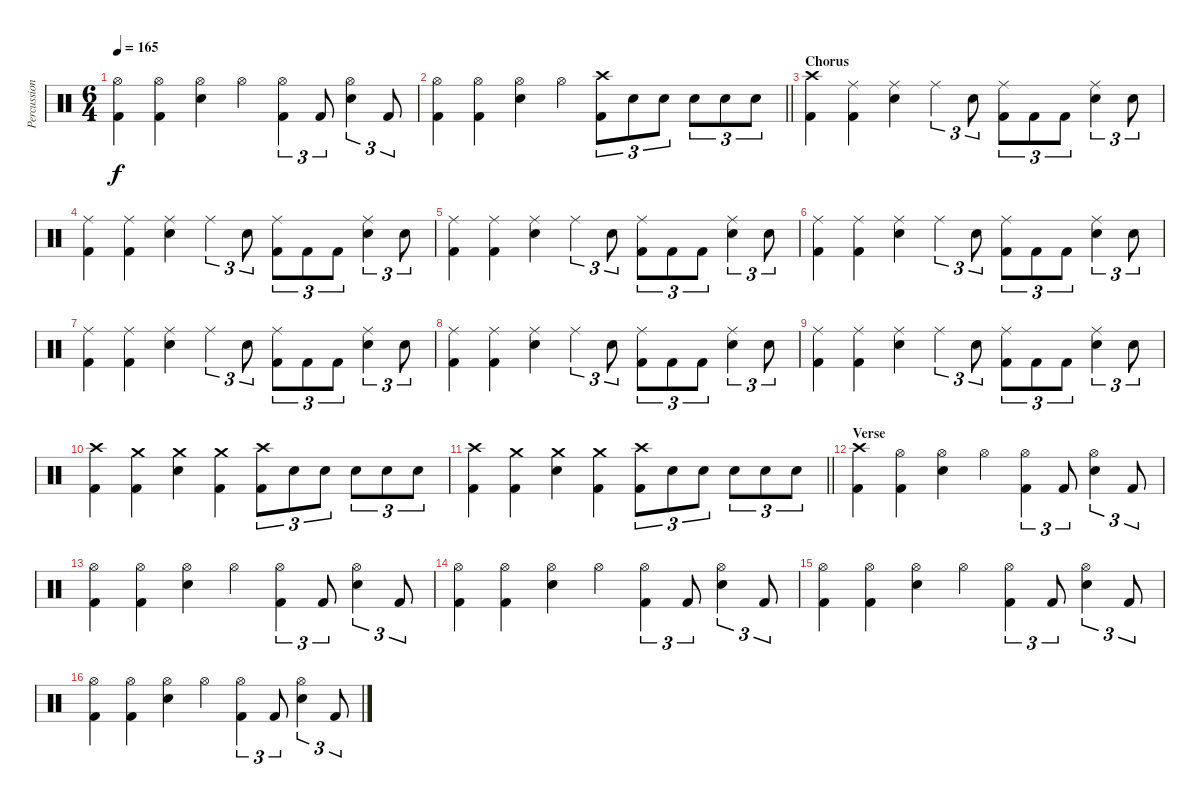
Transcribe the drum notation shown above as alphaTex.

\track ("Percussion" "Percussion") {instrument percussion}
\staff {score}
\articulation defaults
\ts (6 4)
\tempo 165
\clef neutral
\ks c
("Hi-Hat (open)" "Kick (hit) 2").4{dy f} ("Hi-Hat (open)" "Kick (hit) 2").4 ("Hi-Hat (open)" "Electric Snare (hit)").4 "Hi-Hat (open)".4 ("Hi-Hat (open)" "Kick (hit) 2").4{tu (3 2)} "Kick (hit) 2".8{tu (3 2)} ("Hi-Hat (open)" "Electric Snare (hit)").4{tu (3 2)} "Kick (hit) 2".8{tu (3 2)} |
\barLineRight lightlight
("Hi-Hat (open)" "Kick (hit) 2").4 ("Hi-Hat (open)" "Kick (hit) 2").4 ("Hi-Hat (open)" "Electric Snare (hit)").4 "Hi-Hat (open)".4 ("Crash high (hit)" "Kick (hit) 2").8{tu (3 2)} "Electric Snare (hit)".8{tu (3 2)} "Electric Snare (hit)".8{tu (3 2)} "Electric Snare (hit)".8{tu (3 2)} "Electric Snare (hit)".8{tu (3 2)} "Electric Snare (hit)".8{tu (3 2)} |
\section ("" "Chorus")
("Crash high (hit)" "Kick (hit) 2").4 ("Ride (middle)" "Kick (hit) 2").4 ("Ride (middle)" "Electric Snare (hit)").4 "Ride (middle)".4{tu (3 2)} "Electric Snare (hit)".8{tu (3 2)} ("Ride (middle)" "Kick (hit) 2").8{tu (3 2)} "Kick (hit) 2".8{tu (3 2)} "Kick (hit) 2".8{tu (3 2)} ("Ride (middle)" "Electric Snare (hit)").4{tu (3 2)} "Electric Snare (hit)".8{tu (3 2)} |
("Ride (middle)" "Kick (hit) 2").4 ("Ride (middle)" "Kick (hit) 2").4 ("Ride (middle)" "Electric Snare (hit)").4 "Ride (middle)".4{tu (3 2)} "Electric Snare (hit)".8{tu (3 2)} ("Ride (middle)" "Kick (hit) 2").8{tu (3 2)} "Kick (hit) 2".8{tu (3 2)} "Kick (hit) 2".8{tu (3 2)} ("Ride (middle)" "Electric Snare (hit)").4{tu (3 2)} "Electric Snare (hit)".8{tu (3 2)} |
("Ride (middle)" "Kick (hit) 2").4 ("Ride (middle)" "Kick (hit) 2").4 ("Ride (middle)" "Electric Snare (hit)").4 "Ride (middle)".4{tu (3 2)} "Electric Snare (hit)".8{tu (3 2)} ("Ride (middle)" "Kick (hit) 2").8{tu (3 2)} "Kick (hit) 2".8{tu (3 2)} "Kick (hit) 2".8{tu (3 2)} ("Ride (middle)" "Electric Snare (hit)").4{tu (3 2)} "Electric Snare (hit)".8{tu (3 2)} |
("Ride (middle)" "Kick (hit) 2").4 ("Ride (middle)" "Kick (hit) 2").4 ("Ride (middle)" "Electric Snare (hit)").4 "Ride (middle)".4{tu (3 2)} "Electric Snare (hit)".8{tu (3 2)} ("Ride (middle)" "Kick (hit) 2").8{tu (3 2)} "Kick (hit) 2".8{tu (3 2)} "Kick (hit) 2".8{tu (3 2)} ("Ride (middle)" "Electric Snare (hit)").4{tu (3 2)} "Electric Snare (hit)".8{tu (3 2)} |
("Ride (middle)" "Kick (hit) 2").4 ("Ride (middle)" "Kick (hit) 2").4 ("Ride (middle)" "Electric Snare (hit)").4 "Ride (middle)".4{tu (3 2)} "Electric Snare (hit)".8{tu (3 2)} ("Ride (middle)" "Kick (hit) 2").8{tu (3 2)} "Kick (hit) 2".8{tu (3 2)} "Kick (hit) 2".8{tu (3 2)} ("Ride (middle)" "Electric Snare (hit)").4{tu (3 2)} "Electric Snare (hit)".8{tu (3 2)} |
("Ride (middle)" "Kick (hit) 2").4 ("Ride (middle)" "Kick (hit) 2").4 ("Ride (middle)" "Electric Snare (hit)").4 "Ride (middle)".4{tu (3 2)} "Electric Snare (hit)".8{tu (3 2)} ("Ride (middle)" "Kick (hit) 2").8{tu (3 2)} "Kick (hit) 2".8{tu (3 2)} "Kick (hit) 2".8{tu (3 2)} ("Ride (middle)" "Electric Snare (hit)").4{tu (3 2)} "Electric Snare (hit)".8{tu (3 2)} |
("Ride (middle)" "Kick (hit) 2").4 ("Ride (middle)" "Kick (hit) 2").4 ("Ride (middle)" "Electric Snare (hit)").4 "Ride (middle)".4{tu (3 2)} "Electric Snare (hit)".8{tu (3 2)} ("Ride (middle)" "Kick (hit) 2").8{tu (3 2)} "Kick (hit) 2".8{tu (3 2)} "Kick (hit) 2".8{tu (3 2)} ("Ride (middle)" "Electric Snare (hit)").4{tu (3 2)} "Electric Snare (hit)".8{tu (3 2)} |
("Crash high (hit)" "Kick (hit) 2").4 ("Crash medium (hit)" "Kick (hit) 2").4 ("Crash medium (hit)" "Electric Snare (hit)").4 ("Crash medium (hit)" "Kick (hit) 2").4 ("Crash high (hit)" "Kick (hit) 2").8{tu (3 2)} "Electric Snare (hit)".8{tu (3 2)} "Electric Snare (hit)".8{tu (3 2)} "Electric Snare (hit)".8{tu (3 2)} "Electric Snare (hit)".8{tu (3 2)} "Electric Snare (hit)".8{tu (3 2)} |
\barLineRight lightlight
("Crash high (hit)" "Kick (hit) 2").4 ("Crash medium (hit)" "Kick (hit) 2").4 ("Crash medium (hit)" "Electric Snare (hit)").4 ("Crash medium (hit)" "Kick (hit) 2").4 ("Crash high (hit)" "Kick (hit) 2").8{tu (3 2)} "Electric Snare (hit)".8{tu (3 2)} "Electric Snare (hit)".8{tu (3 2)} "Electric Snare (hit)".8{tu (3 2)} "Electric Snare (hit)".8{tu (3 2)} "Electric Snare (hit)".8{tu (3 2)} |
\section ("" "Verse")
("Crash high (hit)" "Kick (hit) 2").4 ("Hi-Hat (open)" "Kick (hit) 2").4 ("Hi-Hat (open)" "Electric Snare (hit)").4 "Hi-Hat (open)".4 ("Hi-Hat (open)" "Kick (hit) 2").4{tu (3 2)} "Kick (hit) 2".8{tu (3 2)} ("Hi-Hat (open)" "Electric Snare (hit)").4{tu (3 2)} "Kick (hit) 2".8{tu (3 2)} |
("Hi-Hat (open)" "Kick (hit) 2").4 ("Hi-Hat (open)" "Kick (hit) 2").4 ("Hi-Hat (open)" "Electric Snare (hit)").4 "Hi-Hat (open)".4 ("Hi-Hat (open)" "Kick (hit) 2").4{tu (3 2)} "Kick (hit) 2".8{tu (3 2)} ("Hi-Hat (open)" "Electric Snare (hit)").4{tu (3 2)} "Kick (hit) 2".8{tu (3 2)} |
("Hi-Hat (open)" "Kick (hit) 2").4 ("Hi-Hat (open)" "Kick (hit) 2").4 ("Hi-Hat (open)" "Electric Snare (hit)").4 "Hi-Hat (open)".4 ("Hi-Hat (open)" "Kick (hit) 2").4{tu (3 2)} "Kick (hit) 2".8{tu (3 2)} ("Hi-Hat (open)" "Electric Snare (hit)").4{tu (3 2)} "Kick (hit) 2".8{tu (3 2)} |
("Hi-Hat (open)" "Kick (hit) 2").4 ("Hi-Hat (open)" "Kick (hit) 2").4 ("Hi-Hat (open)" "Electric Snare (hit)").4 "Hi-Hat (open)".4 ("Hi-Hat (open)" "Kick (hit) 2").4{tu (3 2)} "Kick (hit) 2".8{tu (3 2)} ("Hi-Hat (open)" "Electric Snare (hit)").4{tu (3 2)} "Kick (hit) 2".8{tu (3 2)} |
("Hi-Hat (open)" "Kick (hit) 2").4 ("Hi-Hat (open)" "Kick (hit) 2").4 ("Hi-Hat (open)" "Electric Snare (hit)").4 "Hi-Hat (open)".4 ("Hi-Hat (open)" "Kick (hit) 2").4{tu (3 2)} "Kick (hit) 2".8{tu (3 2)} ("Hi-Hat (open)" "Electric Snare (hit)").4{tu (3 2)} "Kick (hit) 2".8{tu (3 2)}
